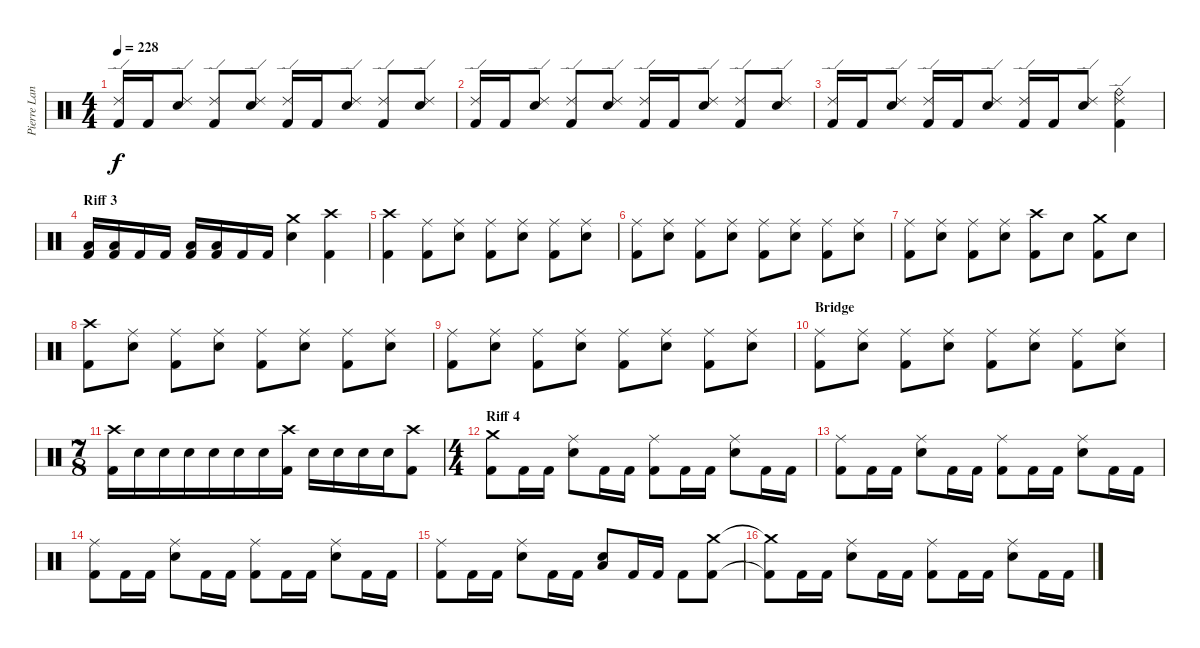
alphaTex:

\track ("Pierre Langlois (Drums)" "Pierre Lan") {instrument percussion}
\staff {score}
\articulation defaults
\ts (4 4)
\tempo 228
\clef neutral
\ks c
("Ride (edge) 2" "Kick (hit) 2").16{dy f} "Kick (hit) 2".16 ("Ride (edge) 2" "Snare (hit) 2").8 ("Ride (edge) 2" "Kick (hit) 2").8 ("Ride (edge) 2" "Snare (hit) 2").8 ("Ride (edge) 2" "Kick (hit) 2").16 "Kick (hit) 2".16 ("Ride (edge) 2" "Snare (hit) 2").8 ("Ride (edge) 2" "Kick (hit) 2").8 ("Ride (edge) 2" "Snare (hit) 2").8 |
("Ride (edge) 2" "Kick (hit) 2").16 "Kick (hit) 2".16 ("Ride (edge) 2" "Snare (hit) 2").8 ("Ride (edge) 2" "Kick (hit) 2").8 ("Ride (edge) 2" "Snare (hit) 2").8 ("Ride (edge) 2" "Kick (hit) 2").16 "Kick (hit) 2".16 ("Ride (edge) 2" "Snare (hit) 2").8 ("Ride (edge) 2" "Kick (hit) 2").8 ("Ride (edge) 2" "Snare (hit) 2").8 |
("Ride (edge) 2" "Kick (hit) 2").16 "Kick (hit) 2".16 ("Ride (edge) 2" "Snare (hit) 2").8 ("Ride (edge) 2" "Kick (hit) 2").16 "Kick (hit) 2".16 ("Ride (edge) 2" "Snare (hit) 2").8 ("Ride (edge) 2" "Kick (hit) 2").16 "Kick (hit) 2".16 ("Ride (edge) 2" "Snare (hit) 2").8 ("Ride (bell)" "Ride (edge) 2" "Kick (hit) 2").4 |
\section ("" "Riff 3")
("Low Floor Tom (hit)" "Kick (hit) 2").16 ("Low Floor Tom (hit)" "Kick (hit) 2").16 "Kick (hit) 2".16 "Kick (hit) 2".16 ("Low Floor Tom (hit)" "Kick (hit) 2").16 ("Low Floor Tom (hit)" "Kick (hit) 2").16 "Kick (hit) 2".16 "Kick (hit) 2".16 ("Crash medium (hit)" "Snare (hit) 2").4 ("Crash high (hit)" "Kick (hit) 2").4 |
("Crash high (hit)" "Kick (hit) 2").4 ("Ride (middle)" "Kick (hit) 2").8 ("Ride (middle)" "Snare (hit) 2").8 ("Ride (middle)" "Kick (hit) 2").8 ("Ride (middle)" "Snare (hit) 2").8 ("Ride (middle)" "Kick (hit) 2").8 ("Ride (middle)" "Snare (hit) 2").8 |
("Ride (middle)" "Kick (hit) 2").8 ("Ride (middle)" "Snare (hit) 2").8 ("Ride (middle)" "Kick (hit) 2").8 ("Ride (middle)" "Snare (hit) 2").8 ("Ride (middle)" "Kick (hit) 2").8 ("Ride (middle)" "Snare (hit) 2").8 ("Ride (middle)" "Kick (hit) 2").8 ("Ride (middle)" "Snare (hit) 2").8 |
("Ride (middle)" "Kick (hit) 2").8 ("Ride (middle)" "Snare (hit) 2").8 ("Ride (middle)" "Kick (hit) 2").8 ("Ride (middle)" "Snare (hit) 2").8 ("Crash high (hit)" "Kick (hit) 2").8 "Snare (hit) 2".8 ("Crash medium (hit)" "Kick (hit) 2").8 "Snare (hit) 2".8 |
("Crash high (hit)" "Kick (hit) 2").8 ("Ride (middle)" "Snare (hit) 2").8 ("Ride (middle)" "Kick (hit) 2").8 ("Ride (middle)" "Snare (hit) 2").8 ("Ride (middle)" "Kick (hit) 2").8 ("Ride (middle)" "Snare (hit) 2").8 ("Ride (middle)" "Kick (hit) 2").8 ("Ride (middle)" "Snare (hit) 2").8 |
("Ride (middle)" "Kick (hit) 2").8 ("Ride (middle)" "Snare (hit) 2").8 ("Ride (middle)" "Kick (hit) 2").8 ("Ride (middle)" "Snare (hit) 2").8 ("Ride (middle)" "Kick (hit) 2").8 ("Ride (middle)" "Snare (hit) 2").8 ("Ride (middle)" "Kick (hit) 2").8 ("Ride (middle)" "Snare (hit) 2").8 |
\section ("" "Bridge")
("Ride (middle)" "Kick (hit) 2").8 ("Ride (middle)" "Snare (hit) 2").8 ("Ride (middle)" "Kick (hit) 2").8 ("Ride (middle)" "Snare (hit) 2").8 ("Ride (middle)" "Kick (hit) 2").8 ("Ride (middle)" "Snare (hit) 2").8 ("Ride (middle)" "Kick (hit) 2").8 ("Ride (middle)" "Snare (hit) 2").8 |
\ts (7 8)
("Crash high (hit)" "Kick (hit) 2").16 "Snare (hit) 2".16 "Snare (hit) 2".16 "Snare (hit) 2".16 "Snare (hit) 2".16 "Snare (hit) 2".16 "Snare (hit) 2".16 ("Crash high (hit)" "Kick (hit) 2").16 "Snare (hit) 2".16 "Snare (hit) 2".16 "Snare (hit) 2".16 "Snare (hit) 2".16 ("Crash high (hit)" "Kick (hit) 2").8 |
\ts (4 4)
\section ("" "Riff 4")
("Crash medium (hit)" "Kick (hit) 2").8 "Kick (hit) 2".16 "Kick (hit) 2".16 ("Ride (middle)" "Snare (hit) 2").8 "Kick (hit) 2".16 "Kick (hit) 2".16 ("Ride (middle)" "Kick (hit) 2").8 "Kick (hit) 2".16 "Kick (hit) 2".16 ("Ride (middle)" "Snare (hit) 2").8 "Kick (hit) 2".16 "Kick (hit) 2".16 |
("Ride (middle)" "Kick (hit) 2").8 "Kick (hit) 2".16 "Kick (hit) 2".16 ("Ride (middle)" "Snare (hit) 2").8 "Kick (hit) 2".16 "Kick (hit) 2".16 ("Kick (hit) 2" "Ride (middle)").8 "Kick (hit) 2".16 "Kick (hit) 2".16 ("Ride (middle)" "Snare (hit) 2").8 "Kick (hit) 2".16 "Kick (hit) 2".16 |
("Ride (middle)" "Kick (hit) 2").8 "Kick (hit) 2".16 "Kick (hit) 2".16 ("Ride (middle)" "Snare (hit) 2").8 "Kick (hit) 2".16 "Kick (hit) 2".16 ("Kick (hit) 2" "Ride (middle)").8 "Kick (hit) 2".16 "Kick (hit) 2".16 ("Ride (middle)" "Snare (hit) 2").8 "Kick (hit) 2".16 "Kick (hit) 2".16 |
("Ride (middle)" "Kick (hit) 2").8 "Kick (hit) 2".16 "Kick (hit) 2".16 ("Ride (middle)" "Snare (hit) 2").8 "Kick (hit) 2".16 "Kick (hit) 2".16 ("Low Floor Tom (hit)" "Snare (hit) 2").8 "Kick (hit) 2".16 "Kick (hit) 2".16 "Kick (hit) 2".8 ("Crash medium (hit)" "Kick (hit) 2").8 |
("Crash medium (hit)"{t} "Kick (hit) 2"{t}).8 "Kick (hit) 2".16 "Kick (hit) 2".16 ("Ride (middle)" "Snare (hit) 2").8 "Kick (hit) 2".16 "Kick (hit) 2".16 ("Ride (middle)" "Kick (hit) 2").8 "Kick (hit) 2".16 "Kick (hit) 2".16 ("Ride (middle)" "Snare (hit) 2").8 "Kick (hit) 2".16 "Kick (hit) 2".16
